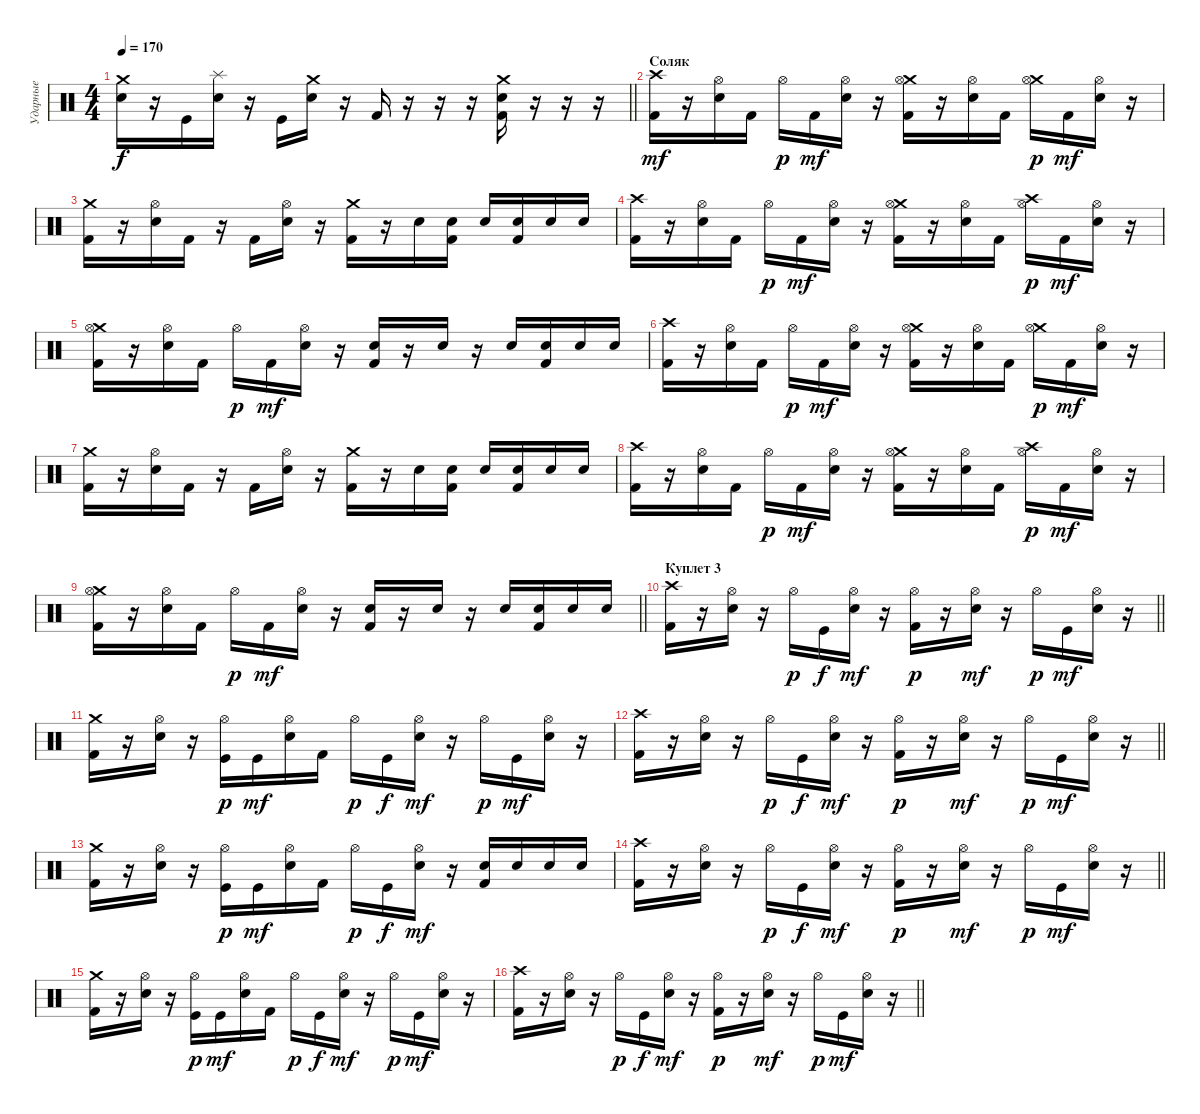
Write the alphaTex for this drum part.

\track ("Ударные" "Ударные") {instrument percussion}
\staff {score}
\articulation defaults
\ts (4 4)
\tempo 170
\clef neutral
\barLineRight lightlight
\ks c
("Crash medium (hit)" "Electric Snare (hit)").16{dy f} r.16 "Kick (hit)".16 ("Splash (hit)" "Electric Snare (hit)").16 r.16 "Kick (hit)".16 ("Crash medium (hit)" "Electric Snare (hit)").16 r.16 "Kick (hit) 2".16 r.16 r.16 r.16 ("Crash medium (hit)" "Electric Snare (hit)" "Kick (hit) 2").16 r.16 r.16 r.16 |
\section ("" "Соляк")
("Crash high (hit)" "Kick (hit) 2").16{dy mf} r.16 ("Hi-Hat (open)" "Electric Snare (hit)").16 "Kick (hit) 2".16 "Hi-Hat (open)".16{dy p} "Kick (hit) 2".16{dy mf} ("Hi-Hat (open)" "Electric Snare (hit)").16 r.16 ("Crash medium (hit)" "Hi-Hat (open)" "Kick (hit) 2").16 r.16 ("Hi-Hat (open)" "Electric Snare (hit)").16 "Kick (hit) 2".16 ("Crash medium (hit)" "Hi-Hat (open)").16{dy p} "Kick (hit) 2".16{dy mf} ("Hi-Hat (open)" "Electric Snare (hit)").16 r.16 |
("Crash medium (hit)" "Kick (hit) 2").16 r.16 ("Hi-Hat (open)" "Electric Snare (hit)").16 "Kick (hit) 2".16 r.16 "Kick (hit) 2".16 ("Hi-Hat (open)" "Electric Snare (hit)").16 r.16 ("Crash medium (hit)" "Kick (hit) 2").16 r.16 "Electric Snare (hit)".16 ("Electric Snare (hit)" "Kick (hit) 2").16 "Electric Snare (hit)".16 ("Electric Snare (hit)" "Kick (hit) 2").16 "Electric Snare (hit)".16 "Electric Snare (hit)".16 |
("Crash high (hit)" "Kick (hit) 2").16 r.16 ("Hi-Hat (open)" "Electric Snare (hit)").16 "Kick (hit) 2".16 "Hi-Hat (open)".16{dy p} "Kick (hit) 2".16{dy mf} ("Hi-Hat (open)" "Electric Snare (hit)").16 r.16 ("Crash medium (hit)" "Hi-Hat (open)" "Kick (hit) 2").16 r.16 ("Hi-Hat (open)" "Electric Snare (hit)").16 "Kick (hit) 2".16 ("Crash high (hit)" "Hi-Hat (open)").16{dy p} "Kick (hit) 2".16{dy mf} ("Hi-Hat (open)" "Electric Snare (hit)").16 r.16 |
("Crash medium (hit)" "Hi-Hat (open)" "Kick (hit) 2").16 r.16 ("Hi-Hat (open)" "Electric Snare (hit)").16 "Kick (hit) 2".16 "Hi-Hat (open)".16{dy p} "Kick (hit) 2".16{dy mf} ("Hi-Hat (open)" "Electric Snare (hit)").16 r.16 ("Electric Snare (hit)" "Kick (hit) 2").16 r.16 "Electric Snare (hit)".16 r.16 "Electric Snare (hit)".16 ("Electric Snare (hit)" "Kick (hit) 2").16 "Electric Snare (hit)".16 "Electric Snare (hit)".16 |
("Crash high (hit)" "Kick (hit) 2").16 r.16 ("Hi-Hat (open)" "Electric Snare (hit)").16 "Kick (hit) 2".16 "Hi-Hat (open)".16{dy p} "Kick (hit) 2".16{dy mf} ("Hi-Hat (open)" "Electric Snare (hit)").16 r.16 ("Crash medium (hit)" "Hi-Hat (open)" "Kick (hit) 2").16 r.16 ("Hi-Hat (open)" "Electric Snare (hit)").16 "Kick (hit) 2".16 ("Crash medium (hit)" "Hi-Hat (open)").16{dy p} "Kick (hit) 2".16{dy mf} ("Hi-Hat (open)" "Electric Snare (hit)").16 r.16 |
("Crash medium (hit)" "Kick (hit) 2").16 r.16 ("Hi-Hat (open)" "Electric Snare (hit)").16 "Kick (hit) 2".16 r.16 "Kick (hit) 2".16 ("Hi-Hat (open)" "Electric Snare (hit)").16 r.16 ("Crash medium (hit)" "Kick (hit) 2").16 r.16 "Electric Snare (hit)".16 ("Electric Snare (hit)" "Kick (hit) 2").16 "Electric Snare (hit)".16 ("Electric Snare (hit)" "Kick (hit) 2").16 "Electric Snare (hit)".16 "Electric Snare (hit)".16 |
("Crash high (hit)" "Kick (hit) 2").16 r.16 ("Hi-Hat (open)" "Electric Snare (hit)").16 "Kick (hit) 2".16 "Hi-Hat (open)".16{dy p} "Kick (hit) 2".16{dy mf} ("Hi-Hat (open)" "Electric Snare (hit)").16 r.16 ("Crash medium (hit)" "Hi-Hat (open)" "Kick (hit) 2").16 r.16 ("Hi-Hat (open)" "Electric Snare (hit)").16 "Kick (hit) 2".16 ("Crash high (hit)" "Hi-Hat (open)").16{dy p} "Kick (hit) 2".16{dy mf} ("Hi-Hat (open)" "Electric Snare (hit)").16 r.16 |
\barLineRight lightlight
("Crash medium (hit)" "Hi-Hat (open)" "Kick (hit) 2").16 r.16 ("Hi-Hat (open)" "Electric Snare (hit)").16 "Kick (hit) 2".16 "Hi-Hat (open)".16{dy p} "Kick (hit) 2".16{dy mf} ("Hi-Hat (open)" "Electric Snare (hit)").16 r.16 ("Electric Snare (hit)" "Kick (hit) 2").16 r.16 "Electric Snare (hit)".16 r.16 "Electric Snare (hit)".16 ("Electric Snare (hit)" "Kick (hit) 2").16 "Electric Snare (hit)".16 "Electric Snare (hit)".16 |
\section ("" "Куплет 3")
\barLineRight lightlight
("Crash high (hit)" "Kick (hit) 2").16 r.16 ("Hi-Hat (open)" "Electric Snare (hit)").16 r.16 "Hi-Hat (open)".16{dy p} "Kick (hit)".16{dy f} ("Hi-Hat (open)" "Electric Snare (hit)").16{dy mf} r.16 ("Hi-Hat (open)" "Kick (hit) 2").16{dy p} r.16 ("Hi-Hat (open)" "Electric Snare (hit)").16{dy mf} r.16 "Hi-Hat (open)".16{dy p} "Kick (hit)".16{dy mf} ("Hi-Hat (open)" "Electric Snare (hit)").16 r.16 |
("Crash medium (hit)" "Kick (hit) 2").16 r.16 ("Hi-Hat (open)" "Electric Snare (hit)").16 r.16 ("Hi-Hat (open)" "Kick (hit)").16{dy p} "Kick (hit)".16{dy mf} ("Hi-Hat (open)" "Electric Snare (hit)").16 "Kick (hit) 2".16 "Hi-Hat (open)".16{dy p} "Kick (hit)".16{dy f} ("Hi-Hat (open)" "Electric Snare (hit)").16{dy mf} r.16 "Hi-Hat (open)".16{dy p} "Kick (hit)".16{dy mf} ("Hi-Hat (open)" "Electric Snare (hit)").16 r.16 |
\barLineRight lightlight
("Crash high (hit)" "Kick (hit) 2").16 r.16 ("Hi-Hat (open)" "Electric Snare (hit)").16 r.16 "Hi-Hat (open)".16{dy p} "Kick (hit)".16{dy f} ("Hi-Hat (open)" "Electric Snare (hit)").16{dy mf} r.16 ("Hi-Hat (open)" "Kick (hit) 2").16{dy p} r.16 ("Hi-Hat (open)" "Electric Snare (hit)").16{dy mf} r.16 "Hi-Hat (open)".16{dy p} "Kick (hit)".16{dy mf} ("Hi-Hat (open)" "Electric Snare (hit)").16 r.16 |
("Crash medium (hit)" "Kick (hit) 2").16 r.16 ("Hi-Hat (open)" "Electric Snare (hit)").16 r.16 ("Hi-Hat (open)" "Kick (hit)").16{dy p} "Kick (hit)".16{dy mf} ("Hi-Hat (open)" "Electric Snare (hit)").16 "Kick (hit) 2".16 "Hi-Hat (open)".16{dy p} "Kick (hit)".16{dy f} ("Hi-Hat (open)" "Electric Snare (hit)").16{dy mf} r.16 ("Electric Snare (hit)" "Kick (hit) 2").16 "Electric Snare (hit)".16 "Electric Snare (hit)".16 "Electric Snare (hit)".16 |
\barLineRight lightlight
("Crash high (hit)" "Kick (hit) 2").16 r.16 ("Hi-Hat (open)" "Electric Snare (hit)").16 r.16 "Hi-Hat (open)".16{dy p} "Kick (hit)".16{dy f} ("Hi-Hat (open)" "Electric Snare (hit)").16{dy mf} r.16 ("Hi-Hat (open)" "Kick (hit) 2").16{dy p} r.16 ("Hi-Hat (open)" "Electric Snare (hit)").16{dy mf} r.16 "Hi-Hat (open)".16{dy p} "Kick (hit)".16{dy mf} ("Hi-Hat (open)" "Electric Snare (hit)").16 r.16 |
("Crash medium (hit)" "Kick (hit) 2").16 r.16 ("Hi-Hat (open)" "Electric Snare (hit)").16 r.16 ("Hi-Hat (open)" "Kick (hit)").16{dy p} "Kick (hit)".16{dy mf} ("Hi-Hat (open)" "Electric Snare (hit)").16 "Kick (hit) 2".16 "Hi-Hat (open)".16{dy p} "Kick (hit)".16{dy f} ("Hi-Hat (open)" "Electric Snare (hit)").16{dy mf} r.16 "Hi-Hat (open)".16{dy p} "Kick (hit)".16{dy mf} ("Hi-Hat (open)" "Electric Snare (hit)").16 r.16 |
\barLineRight lightlight
("Crash high (hit)" "Kick (hit) 2").16 r.16 ("Hi-Hat (open)" "Electric Snare (hit)").16 r.16 "Hi-Hat (open)".16{dy p} "Kick (hit)".16{dy f} ("Hi-Hat (open)" "Electric Snare (hit)").16{dy mf} r.16 ("Hi-Hat (open)" "Kick (hit) 2").16{dy p} r.16 ("Hi-Hat (open)" "Electric Snare (hit)").16{dy mf} r.16 "Hi-Hat (open)".16{dy p} "Kick (hit)".16{dy mf} ("Hi-Hat (open)" "Electric Snare (hit)").16 r.16
